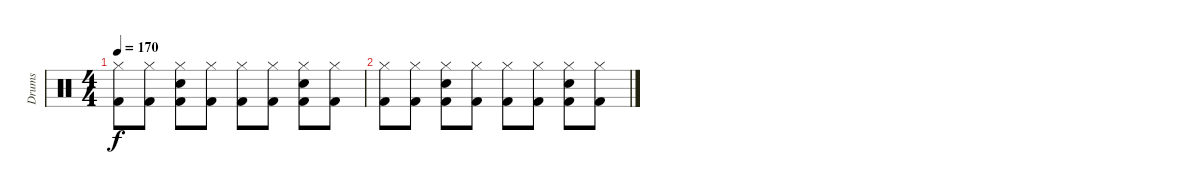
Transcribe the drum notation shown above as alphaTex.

\track ("Drums" "Drums") {instrument percussion}
\staff {score}
\articulation defaults
\ts (4 4)
\tempo 170
\clef neutral
\ks c
("Hi-Hat (closed)" "Kick (hit) 2").8{dy f} ("Hi-Hat (closed)" "Kick (hit) 2").8 ("Hi-Hat (closed)" "Electric Snare (hit)" "Kick (hit) 2").8 ("Hi-Hat (closed)" "Kick (hit) 2").8 ("Hi-Hat (closed)" "Kick (hit) 2").8 ("Hi-Hat (closed)" "Kick (hit) 2").8 ("Hi-Hat (closed)" "Electric Snare (hit)" "Kick (hit) 2").8 ("Hi-Hat (closed)" "Kick (hit) 2").8 |
("Hi-Hat (closed)" "Kick (hit) 2").8 ("Hi-Hat (closed)" "Kick (hit) 2").8 ("Hi-Hat (closed)" "Electric Snare (hit)" "Kick (hit) 2").8 ("Hi-Hat (closed)" "Kick (hit) 2").8 ("Hi-Hat (closed)" "Kick (hit) 2").8 ("Hi-Hat (closed)" "Kick (hit) 2").8 ("Hi-Hat (closed)" "Electric Snare (hit)" "Kick (hit) 2").8 ("Hi-Hat (closed)" "Kick (hit) 2").8
